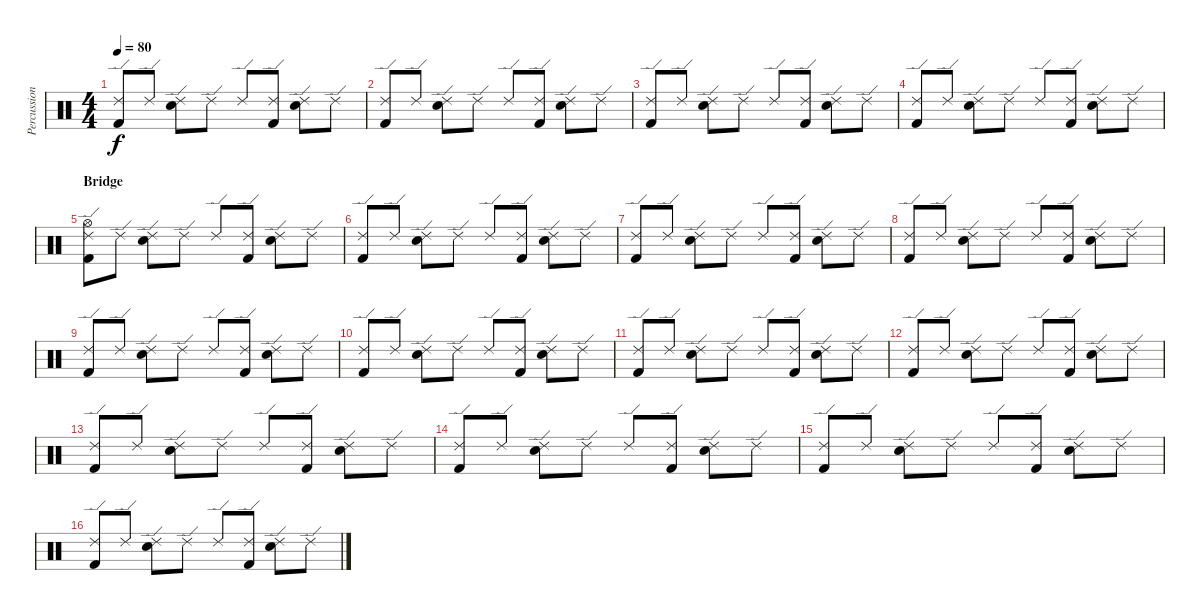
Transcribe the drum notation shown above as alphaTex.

\track ("Percussion" "Percussion") {instrument percussion}
\staff {score}
\articulation defaults
\ts (4 4)
\tempo 80
\clef neutral
\ks c
("Ride (edge) 2" "Kick (hit) 2").8{dy f} "Ride (edge) 2".8 ("Ride (edge) 2" "Electric Snare (hit)").8 "Ride (edge) 2".8 "Ride (edge) 2".8 ("Ride (edge) 2" "Kick (hit) 2").8 ("Ride (edge) 2" "Electric Snare (hit)").8 "Ride (edge) 2".8 |
("Ride (edge) 2" "Kick (hit) 2").8 "Ride (edge) 2".8 ("Ride (edge) 2" "Electric Snare (hit)").8 "Ride (edge) 2".8 "Ride (edge) 2".8 ("Ride (edge) 2" "Kick (hit) 2").8 ("Ride (edge) 2" "Electric Snare (hit)").8 "Ride (edge) 2".8 |
("Ride (edge) 2" "Kick (hit) 2").8 "Ride (edge) 2".8 ("Ride (edge) 2" "Electric Snare (hit)").8 "Ride (edge) 2".8 "Ride (edge) 2".8 ("Ride (edge) 2" "Kick (hit) 2").8 ("Ride (edge) 2" "Electric Snare (hit)").8 "Ride (edge) 2".8 |
("Ride (edge) 2" "Kick (hit) 2").8 "Ride (edge) 2".8 ("Ride (edge) 2" "Electric Snare (hit)").8 "Ride (edge) 2".8 "Ride (edge) 2".8 ("Ride (edge) 2" "Kick (hit) 2").8 ("Ride (edge) 2" "Electric Snare (hit)").8 "Ride (edge) 2".8 |
\section ("" "Bridge")
("Ride (edge) 2" "Hi-Hat (open)" "Kick (hit) 2").8 "Ride (edge) 2".8 ("Ride (edge) 2" "Electric Snare (hit)").8 "Ride (edge) 2".8 "Ride (edge) 2".8 ("Ride (edge) 2" "Kick (hit) 2").8 ("Ride (edge) 2" "Electric Snare (hit)").8 "Ride (edge) 2".8 |
("Ride (edge) 2" "Kick (hit) 2").8 "Ride (edge) 2".8 ("Ride (edge) 2" "Electric Snare (hit)").8 "Ride (edge) 2".8 "Ride (edge) 2".8 ("Ride (edge) 2" "Kick (hit) 2").8 ("Ride (edge) 2" "Electric Snare (hit)").8 "Ride (edge) 2".8 |
("Ride (edge) 2" "Kick (hit) 2").8 "Ride (edge) 2".8 ("Ride (edge) 2" "Electric Snare (hit)").8 "Ride (edge) 2".8 "Ride (edge) 2".8 ("Ride (edge) 2" "Kick (hit) 2").8 ("Ride (edge) 2" "Electric Snare (hit)").8 "Ride (edge) 2".8 |
("Ride (edge) 2" "Kick (hit) 2").8 "Ride (edge) 2".8 ("Ride (edge) 2" "Electric Snare (hit)").8 "Ride (edge) 2".8 "Ride (edge) 2".8 ("Ride (edge) 2" "Kick (hit) 2").8 ("Ride (edge) 2" "Electric Snare (hit)").8 "Ride (edge) 2".8 |
("Ride (edge) 2" "Kick (hit) 2").8 "Ride (edge) 2".8 ("Ride (edge) 2" "Electric Snare (hit)").8 "Ride (edge) 2".8 "Ride (edge) 2".8 ("Ride (edge) 2" "Kick (hit) 2").8 ("Ride (edge) 2" "Electric Snare (hit)").8 "Ride (edge) 2".8 |
("Ride (edge) 2" "Kick (hit) 2").8 "Ride (edge) 2".8 ("Ride (edge) 2" "Electric Snare (hit)").8 "Ride (edge) 2".8 "Ride (edge) 2".8 ("Ride (edge) 2" "Kick (hit) 2").8 ("Ride (edge) 2" "Electric Snare (hit)").8 "Ride (edge) 2".8 |
("Ride (edge) 2" "Kick (hit) 2").8 "Ride (edge) 2".8 ("Ride (edge) 2" "Electric Snare (hit)").8 "Ride (edge) 2".8 "Ride (edge) 2".8 ("Ride (edge) 2" "Kick (hit) 2").8 ("Ride (edge) 2" "Electric Snare (hit)").8 "Ride (edge) 2".8 |
("Ride (edge) 2" "Kick (hit) 2").8 "Ride (edge) 2".8 ("Ride (edge) 2" "Electric Snare (hit)").8 "Ride (edge) 2".8 "Ride (edge) 2".8 ("Ride (edge) 2" "Kick (hit) 2").8 ("Ride (edge) 2" "Electric Snare (hit)").8 "Ride (edge) 2".8 |
("Ride (edge) 2" "Kick (hit) 2").8 "Ride (edge) 2".8 ("Ride (edge) 2" "Electric Snare (hit)").8 "Ride (edge) 2".8 "Ride (edge) 2".8 ("Ride (edge) 2" "Kick (hit) 2").8 ("Ride (edge) 2" "Electric Snare (hit)").8 "Ride (edge) 2".8 |
("Ride (edge) 2" "Kick (hit) 2").8 "Ride (edge) 2".8 ("Ride (edge) 2" "Electric Snare (hit)").8 "Ride (edge) 2".8 "Ride (edge) 2".8 ("Ride (edge) 2" "Kick (hit) 2").8 ("Ride (edge) 2" "Electric Snare (hit)").8 "Ride (edge) 2".8 |
("Ride (edge) 2" "Kick (hit) 2").8 "Ride (edge) 2".8 ("Ride (edge) 2" "Electric Snare (hit)").8 "Ride (edge) 2".8 "Ride (edge) 2".8 ("Ride (edge) 2" "Kick (hit) 2").8 ("Ride (edge) 2" "Electric Snare (hit)").8 "Ride (edge) 2".8 |
("Ride (edge) 2" "Kick (hit) 2").8 "Ride (edge) 2".8 ("Ride (edge) 2" "Electric Snare (hit)").8 "Ride (edge) 2".8 "Ride (edge) 2".8 ("Ride (edge) 2" "Kick (hit) 2").8 ("Ride (edge) 2" "Electric Snare (hit)").8 "Ride (edge) 2".8
